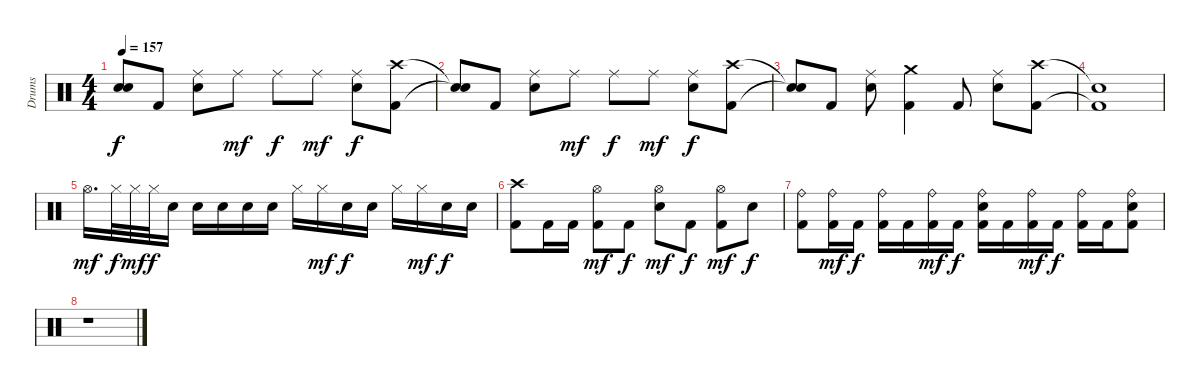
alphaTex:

\track ("Drums" "Drums") {instrument percussion}
\staff {score}
\articulation defaults
\ts (4 4)
\tempo 157
\clef neutral
\ks c
("Snare (hit)"{t} "Snare (hit)"{t}).8{dy f} "Kick (hit) 2".8 ("Ride (middle)" "Electric Snare (hit)").8 "Ride (middle)".8{dy mf} "Ride (middle)".8{dy f} "Ride (middle)".8{dy mf} ("Ride (middle)" "Electric Snare (hit)").8{dy f} ("Kick (hit) 2" "Crash high (hit)").8 |
("Snare (hit)"{t} "Snare (hit)"{t}).8 "Kick (hit) 2".8 ("Ride (middle)" "Electric Snare (hit)").8 "Ride (middle)".8{dy mf} "Ride (middle)".8{dy f} "Ride (middle)".8{dy mf} ("Ride (middle)" "Electric Snare (hit)").8{dy f} ("Kick (hit) 2" "Crash high (hit)").8 |
("Snare (hit)"{t} "Snare (hit)"{t}).8 "Kick (hit) 2".8 ("Ride (middle)" "Electric Snare (hit)").8 ("Kick (hit) 2" "Crash medium (hit)").4 "Kick (hit) 2".8 ("Ride (middle)" "Electric Snare (hit)").8 ("Kick (hit) 2" "Crash high (hit)").8 |
("Kick (hit) 2"{t} "Snare (hit)"{t}).1 |
"Hi-Hat (open)".16{d dy mf} "Hi-Hat (closed)".32{dy f} "Hi-Hat (closed)".32{dy mf} "Hi-Hat (closed)".32{dy f} "Electric Snare (hit)".16 "Electric Snare (hit)".16 "Electric Snare (hit)".16 "Electric Snare (hit)".16 "Electric Snare (hit)".16 "Hi-Hat (closed)".16 "Hi-Hat (closed)".16{dy mf} "Electric Snare (hit)".16{dy f} "Electric Snare (hit)".16 "Hi-Hat (closed)".16 "Hi-Hat (closed)".16{dy mf} "Electric Snare (hit)".16{dy f} "Electric Snare (hit)".16 |
("Kick (hit) 2" "Crash high (hit)").8 "Kick (hit) 2".16 "Kick (hit) 2".16 ("Kick (hit) 2" "Hi-Hat (open)").8{dy mf} "Kick (hit) 2".8{dy f} ("Hi-Hat (open)" "Electric Snare (hit)").8{dy mf} "Kick (hit) 2".8{dy f} ("Kick (hit) 2" "Hi-Hat (open)").8{dy mf} "Electric Snare (hit)".8{dy f} |
("Kick (hit) 2" "Ride (bell)").8 ("Kick (hit) 2" "Ride (bell)").16{dy mf} "Kick (hit) 2".16{dy f} ("Kick (hit) 2" "Ride (bell)").16 "Kick (hit) 2".16 ("Kick (hit) 2" "Ride (bell)").16{dy mf} "Kick (hit) 2".16{dy f} ("Kick (hit) 2" "Ride (bell)" "Electric Snare (hit)").16 "Kick (hit) 2".16 ("Kick (hit) 2" "Ride (bell)").16{dy mf} "Kick (hit) 2".16{dy f} ("Kick (hit) 2" "Ride (bell)").16 "Kick (hit) 2".16 ("Kick (hit) 2" "Ride (bell)" "Electric Snare (hit)").8 |
r.1
